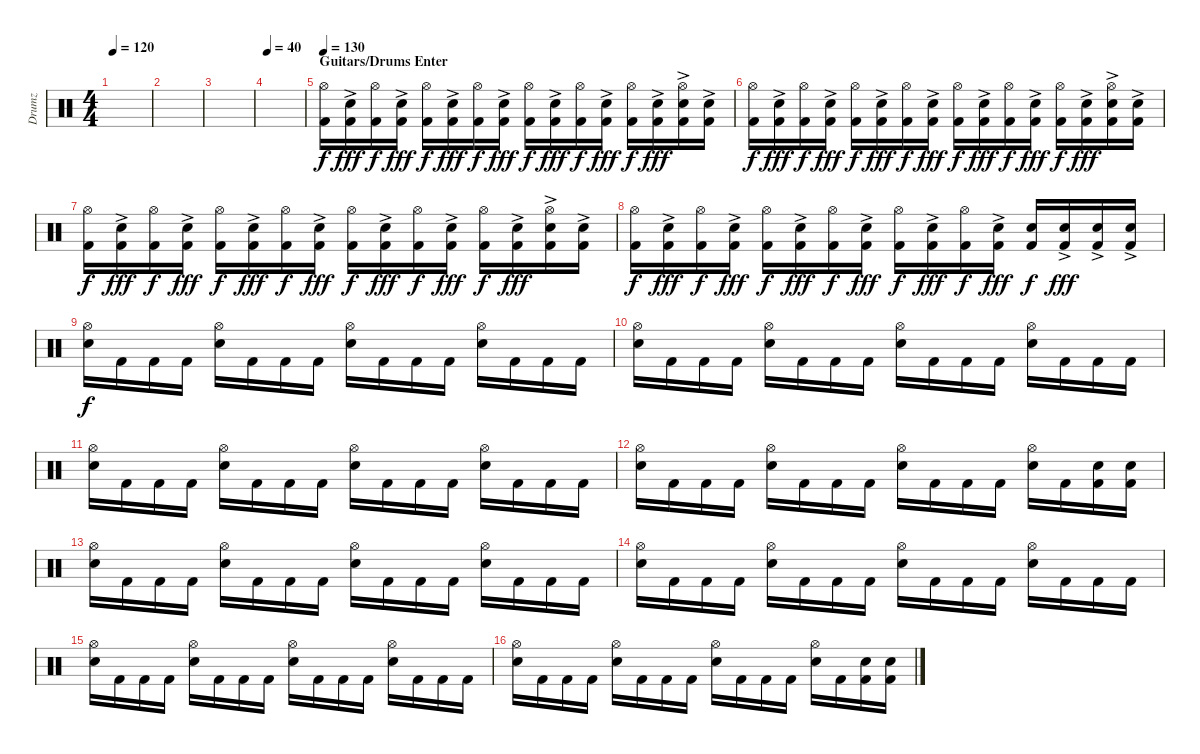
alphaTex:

\track ("Drumz" "Drumz") {instrument percussion}
\staff {score}
\articulation defaults
\ts (4 4)
\tempo 120
\clef neutral
\ks c
|
|
|
\tempo 40
|
\section ("" "Guitars/Drums Enter")
\tempo 130
("Hi-Hat (open)" "Kick (hit) 2").16 ("Snare (hit) 2"{ac} "Kick (hit) 2").16{dy fff} ("Hi-Hat (open)" "Kick (hit) 2").16{dy f} ("Snare (hit) 2"{ac} "Kick (hit) 2").16{dy fff} ("Hi-Hat (open)" "Kick (hit) 2").16{dy f} ("Snare (hit) 2" "Kick (hit) 2"{ac}).16{dy fff} ("Hi-Hat (open)" "Kick (hit) 2").16{dy f} ("Snare (hit) 2"{ac} "Kick (hit) 2"{ac}).16{dy fff} ("Hi-Hat (open)" "Kick (hit) 2").16{dy f} ("Snare (hit) 2"{ac} "Kick (hit) 2").16{dy fff} ("Hi-Hat (open)" "Kick (hit) 2").16{dy f} ("Snare (hit) 2"{ac} "Kick (hit) 2").16{dy fff} ("Hi-Hat (open)" "Kick (hit) 2").16{dy f} ("Snare (hit) 2"{ac} "Kick (hit) 2").16{dy fff} ("Hi-Hat (open)" "Snare (hit) 2"{ac} "Kick (hit) 2").16 ("Snare (hit) 2"{ac} "Kick (hit) 2").16 |
("Hi-Hat (open)" "Kick (hit) 2").16{dy f} ("Snare (hit) 2"{ac} "Kick (hit) 2").16{dy fff} ("Hi-Hat (open)" "Kick (hit) 2").16{dy f} ("Snare (hit) 2"{ac} "Kick (hit) 2").16{dy fff} ("Hi-Hat (open)" "Kick (hit) 2").16{dy f} ("Snare (hit) 2" "Kick (hit) 2"{ac}).16{dy fff} ("Hi-Hat (open)" "Kick (hit) 2").16{dy f} ("Snare (hit) 2"{ac} "Kick (hit) 2"{ac}).16{dy fff} ("Hi-Hat (open)" "Kick (hit) 2").16{dy f} ("Snare (hit) 2"{ac} "Kick (hit) 2").16{dy fff} ("Hi-Hat (open)" "Kick (hit) 2").16{dy f} ("Snare (hit) 2"{ac} "Kick (hit) 2").16{dy fff} ("Hi-Hat (open)" "Kick (hit) 2").16{dy f} ("Snare (hit) 2"{ac} "Kick (hit) 2").16{dy fff} ("Hi-Hat (open)" "Snare (hit) 2"{ac} "Kick (hit) 2").16 ("Snare (hit) 2"{ac} "Kick (hit) 2").16 |
("Hi-Hat (open)" "Kick (hit) 2").16{dy f} ("Snare (hit) 2"{ac} "Kick (hit) 2").16{dy fff} ("Hi-Hat (open)" "Kick (hit) 2").16{dy f} ("Snare (hit) 2"{ac} "Kick (hit) 2").16{dy fff} ("Hi-Hat (open)" "Kick (hit) 2").16{dy f} ("Snare (hit) 2" "Kick (hit) 2"{ac}).16{dy fff} ("Hi-Hat (open)" "Kick (hit) 2").16{dy f} ("Snare (hit) 2"{ac} "Kick (hit) 2"{ac}).16{dy fff} ("Hi-Hat (open)" "Kick (hit) 2").16{dy f} ("Snare (hit) 2"{ac} "Kick (hit) 2").16{dy fff} ("Hi-Hat (open)" "Kick (hit) 2").16{dy f} ("Snare (hit) 2"{ac} "Kick (hit) 2").16{dy fff} ("Hi-Hat (open)" "Kick (hit) 2").16{dy f} ("Snare (hit) 2"{ac} "Kick (hit) 2").16{dy fff} ("Hi-Hat (open)" "Snare (hit) 2"{ac} "Kick (hit) 2").16 ("Snare (hit) 2"{ac} "Kick (hit) 2").16 |
("Hi-Hat (open)" "Kick (hit) 2").16{dy f} ("Snare (hit) 2"{ac} "Kick (hit) 2").16{dy fff} ("Hi-Hat (open)" "Kick (hit) 2").16{dy f} ("Snare (hit) 2"{ac} "Kick (hit) 2").16{dy fff} ("Hi-Hat (open)" "Kick (hit) 2").16{dy f} ("Snare (hit) 2" "Kick (hit) 2"{ac}).16{dy fff} ("Hi-Hat (open)" "Kick (hit) 2").16{dy f} ("Snare (hit) 2"{ac} "Kick (hit) 2"{ac}).16{dy fff} ("Hi-Hat (open)" "Kick (hit) 2").16{dy f} ("Snare (hit) 2"{ac} "Kick (hit) 2").16{dy fff} ("Hi-Hat (open)" "Kick (hit) 2").16{dy f} ("Snare (hit) 2"{ac} "Kick (hit) 2").16{dy fff} ("Snare (hit) 2" "Kick (hit) 2").16{dy f} ("Snare (hit) 2"{ac} "Kick (hit) 2").16{dy fff} ("Snare (hit) 2"{ac} "Kick (hit) 2").16 ("Snare (hit) 2"{ac} "Kick (hit) 2").16 |
("Hi-Hat (open)" "Snare (hit) 2").16{dy f} "Kick (hit) 2".16 "Kick (hit) 2".16 "Kick (hit) 2".16 ("Hi-Hat (open)" "Snare (hit) 2").16 "Kick (hit) 2".16 "Kick (hit) 2".16 "Kick (hit) 2".16 ("Hi-Hat (open)" "Snare (hit) 2").16 "Kick (hit) 2".16 "Kick (hit) 2".16 "Kick (hit) 2".16 ("Hi-Hat (open)" "Snare (hit) 2").16 "Kick (hit) 2".16 "Kick (hit) 2".16 "Kick (hit) 2".16 |
("Hi-Hat (open)" "Snare (hit) 2").16 "Kick (hit) 2".16 "Kick (hit) 2".16 "Kick (hit) 2".16 ("Hi-Hat (open)" "Snare (hit) 2").16 "Kick (hit) 2".16 "Kick (hit) 2".16 "Kick (hit) 2".16 ("Hi-Hat (open)" "Snare (hit) 2").16 "Kick (hit) 2".16 "Kick (hit) 2".16 "Kick (hit) 2".16 ("Hi-Hat (open)" "Snare (hit) 2").16 "Kick (hit) 2".16 "Kick (hit) 2".16 "Kick (hit) 2".16 |
("Hi-Hat (open)" "Snare (hit) 2").16 "Kick (hit) 2".16 "Kick (hit) 2".16 "Kick (hit) 2".16 ("Hi-Hat (open)" "Snare (hit) 2").16 "Kick (hit) 2".16 "Kick (hit) 2".16 "Kick (hit) 2".16 ("Hi-Hat (open)" "Snare (hit) 2").16 "Kick (hit) 2".16 "Kick (hit) 2".16 "Kick (hit) 2".16 ("Hi-Hat (open)" "Snare (hit) 2").16 "Kick (hit) 2".16 "Kick (hit) 2".16 "Kick (hit) 2".16 |
("Hi-Hat (open)" "Snare (hit) 2").16 "Kick (hit) 2".16 "Kick (hit) 2".16 "Kick (hit) 2".16 ("Hi-Hat (open)" "Snare (hit) 2").16 "Kick (hit) 2".16 "Kick (hit) 2".16 "Kick (hit) 2".16 ("Hi-Hat (open)" "Snare (hit) 2").16 "Kick (hit) 2".16 "Kick (hit) 2".16 "Kick (hit) 2".16 ("Hi-Hat (open)" "Snare (hit) 2").16 "Kick (hit) 2".16 ("Snare (hit) 2" "Kick (hit) 2").16 ("Snare (hit) 2" "Kick (hit) 2").16 |
("Hi-Hat (open)" "Snare (hit) 2").16 "Kick (hit) 2".16 "Kick (hit) 2".16 "Kick (hit) 2".16 ("Hi-Hat (open)" "Snare (hit) 2").16 "Kick (hit) 2".16 "Kick (hit) 2".16 "Kick (hit) 2".16 ("Hi-Hat (open)" "Snare (hit) 2").16 "Kick (hit) 2".16 "Kick (hit) 2".16 "Kick (hit) 2".16 ("Hi-Hat (open)" "Snare (hit) 2").16 "Kick (hit) 2".16 "Kick (hit) 2".16 "Kick (hit) 2".16 |
("Hi-Hat (open)" "Snare (hit) 2").16 "Kick (hit) 2".16 "Kick (hit) 2".16 "Kick (hit) 2".16 ("Hi-Hat (open)" "Snare (hit) 2").16 "Kick (hit) 2".16 "Kick (hit) 2".16 "Kick (hit) 2".16 ("Hi-Hat (open)" "Snare (hit) 2").16 "Kick (hit) 2".16 "Kick (hit) 2".16 "Kick (hit) 2".16 ("Hi-Hat (open)" "Snare (hit) 2").16 "Kick (hit) 2".16 "Kick (hit) 2".16 "Kick (hit) 2".16 |
("Hi-Hat (open)" "Snare (hit) 2").16 "Kick (hit) 2".16 "Kick (hit) 2".16 "Kick (hit) 2".16 ("Hi-Hat (open)" "Snare (hit) 2").16 "Kick (hit) 2".16 "Kick (hit) 2".16 "Kick (hit) 2".16 ("Hi-Hat (open)" "Snare (hit) 2").16 "Kick (hit) 2".16 "Kick (hit) 2".16 "Kick (hit) 2".16 ("Hi-Hat (open)" "Snare (hit) 2").16 "Kick (hit) 2".16 "Kick (hit) 2".16 "Kick (hit) 2".16 |
("Hi-Hat (open)" "Snare (hit) 2").16 "Kick (hit) 2".16 "Kick (hit) 2".16 "Kick (hit) 2".16 ("Hi-Hat (open)" "Snare (hit) 2").16 "Kick (hit) 2".16 "Kick (hit) 2".16 "Kick (hit) 2".16 ("Hi-Hat (open)" "Snare (hit) 2").16 "Kick (hit) 2".16 "Kick (hit) 2".16 "Kick (hit) 2".16 ("Hi-Hat (open)" "Snare (hit) 2").16 "Kick (hit) 2".16 ("Snare (hit) 2" "Kick (hit) 2").16 ("Snare (hit) 2" "Kick (hit) 2").16
